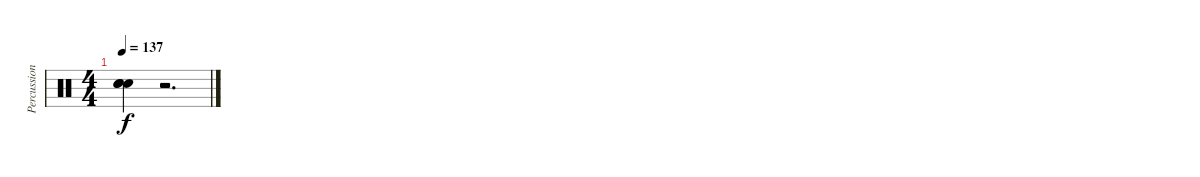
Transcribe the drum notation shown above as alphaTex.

\track ("Percussion" "Percussion") {instrument percussion}
\staff {score}
\articulation defaults
\ts (4 4)
\tempo 137
\clef neutral
\ks c
("Snare (hit)"{t} "Snare (hit)"{t} "Snare (hit)"{t}).4{dy f} r.2{d}
